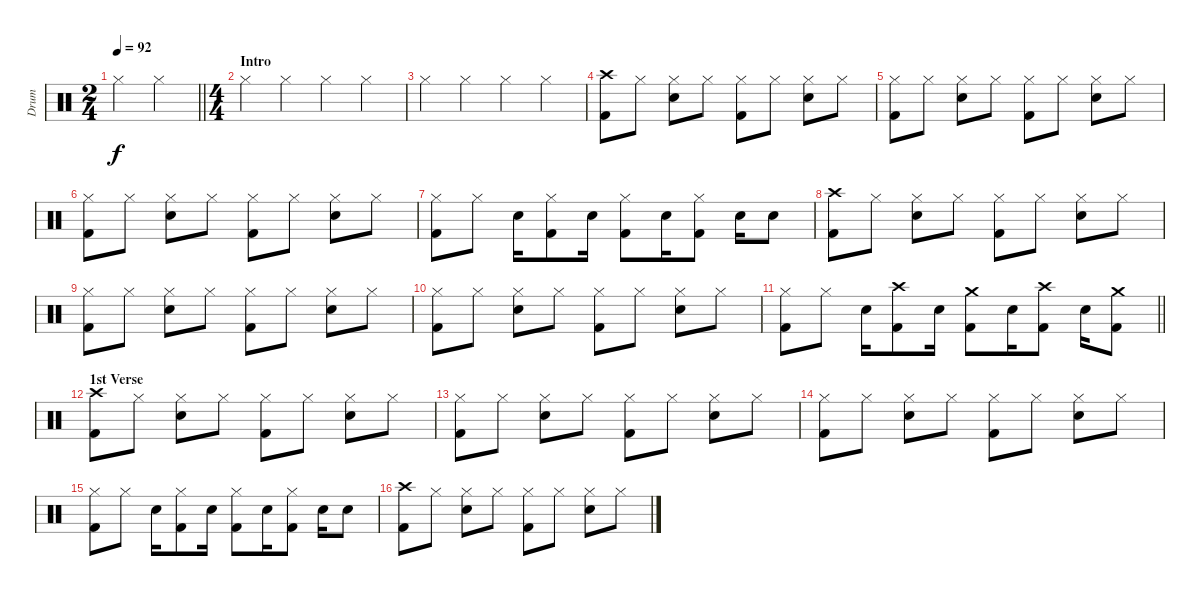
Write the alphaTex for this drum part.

\track ("Drum" "Drum") {instrument percussion}
\staff {score}
\articulation defaults
\ts (2 4)
\tempo 92
\clef neutral
\barLineRight lightlight
\ks c "Hi-Hat (closed)".4{dy f} "Hi-Hat (closed)".4
|
\ts (4 4)
\section ("" "Intro")
"Hi-Hat (closed)".4 "Hi-Hat (closed)".4 "Hi-Hat (closed)".4 "Hi-Hat (closed)".4 |
"Hi-Hat (closed)".4 "Hi-Hat (closed)".4 "Hi-Hat (closed)".4 "Hi-Hat (closed)".4 |
("Crash high (hit)" "Kick (hit) 2").8 "Hi-Hat (closed)".8 ("Hi-Hat (closed)" "Snare (hit) 2").8 "Hi-Hat (closed)".8 ("Hi-Hat (closed)" "Kick (hit) 2").8 "Hi-Hat (closed)".8 ("Hi-Hat (closed)" "Snare (hit) 2").8 "Hi-Hat (closed)".8 |
("Hi-Hat (closed)" "Kick (hit) 2").8 "Hi-Hat (closed)".8 ("Hi-Hat (closed)" "Snare (hit) 2").8 "Hi-Hat (closed)".8 ("Hi-Hat (closed)" "Kick (hit) 2").8 "Hi-Hat (closed)".8 ("Hi-Hat (closed)" "Snare (hit) 2").8 "Hi-Hat (closed)".8 |
("Hi-Hat (closed)" "Kick (hit) 2").8 "Hi-Hat (closed)".8 ("Hi-Hat (closed)" "Snare (hit) 2").8 "Hi-Hat (closed)".8 ("Hi-Hat (closed)" "Kick (hit) 2").8 "Hi-Hat (closed)".8 ("Hi-Hat (closed)" "Snare (hit) 2").8 "Hi-Hat (closed)".8 |
("Hi-Hat (closed)" "Kick (hit) 2").8 "Hi-Hat (closed)".8 "Snare (hit) 2".16 ("Hi-Hat (closed)" "Kick (hit) 2").8 "Snare (hit) 2".16 ("Hi-Hat (closed)" "Kick (hit) 2").8 "Snare (hit) 2".16 ("Hi-Hat (closed)" "Kick (hit) 2").8 "Snare (hit) 2".16 "Snare (hit) 2".8 |
("Crash high (hit)" "Kick (hit) 2").8 "Hi-Hat (closed)".8 ("Hi-Hat (closed)" "Snare (hit) 2").8 "Hi-Hat (closed)".8 ("Hi-Hat (closed)" "Kick (hit) 2").8 "Hi-Hat (closed)".8 ("Hi-Hat (closed)" "Snare (hit) 2").8 "Hi-Hat (closed)".8 |
("Hi-Hat (closed)" "Kick (hit) 2").8 "Hi-Hat (closed)".8 ("Hi-Hat (closed)" "Snare (hit) 2").8 "Hi-Hat (closed)".8 ("Hi-Hat (closed)" "Kick (hit) 2").8 "Hi-Hat (closed)".8 ("Hi-Hat (closed)" "Snare (hit) 2").8 "Hi-Hat (closed)".8 |
("Hi-Hat (closed)" "Kick (hit) 2").8 "Hi-Hat (closed)".8 ("Hi-Hat (closed)" "Snare (hit) 2").8 "Hi-Hat (closed)".8 ("Hi-Hat (closed)" "Kick (hit) 2").8 "Hi-Hat (closed)".8 ("Hi-Hat (closed)" "Snare (hit) 2").8 "Hi-Hat (closed)".8 |
\barLineRight lightlight
("Hi-Hat (closed)" "Kick (hit) 2").8 "Hi-Hat (closed)".8 "Snare (hit) 2".16 ("Crash high (hit)" "Kick (hit) 2").8 "Snare (hit) 2".16 ("Crash medium (hit)" "Kick (hit) 2").8 "Snare (hit) 2".16 ("Crash high (hit)" "Kick (hit) 2").8 "Snare (hit) 2".16 ("Crash medium (hit)" "Kick (hit) 2").8 |
\section ("" "1st Verse")
("Crash high (hit)" "Kick (hit) 2").8 "Hi-Hat (closed)".8 ("Hi-Hat (closed)" "Snare (hit) 2").8 "Hi-Hat (closed)".8 ("Hi-Hat (closed)" "Kick (hit) 2").8 "Hi-Hat (closed)".8 ("Hi-Hat (closed)" "Snare (hit) 2").8 "Hi-Hat (closed)".8 |
("Hi-Hat (closed)" "Kick (hit) 2").8 "Hi-Hat (closed)".8 ("Hi-Hat (closed)" "Snare (hit) 2").8 "Hi-Hat (closed)".8 ("Hi-Hat (closed)" "Kick (hit) 2").8 "Hi-Hat (closed)".8 ("Hi-Hat (closed)" "Snare (hit) 2").8 "Hi-Hat (closed)".8 |
("Hi-Hat (closed)" "Kick (hit) 2").8 "Hi-Hat (closed)".8 ("Hi-Hat (closed)" "Snare (hit) 2").8 "Hi-Hat (closed)".8 ("Hi-Hat (closed)" "Kick (hit) 2").8 "Hi-Hat (closed)".8 ("Hi-Hat (closed)" "Snare (hit) 2").8 "Hi-Hat (closed)".8 |
("Hi-Hat (closed)" "Kick (hit) 2").8 "Hi-Hat (closed)".8 "Snare (hit) 2".16 ("Hi-Hat (closed)" "Kick (hit) 2").8 "Snare (hit) 2".16 ("Hi-Hat (closed)" "Kick (hit) 2").8 "Snare (hit) 2".16 ("Hi-Hat (closed)" "Kick (hit) 2").8 "Snare (hit) 2".16 "Snare (hit) 2".8 |
("Crash high (hit)" "Kick (hit) 2").8 "Hi-Hat (closed)".8 ("Hi-Hat (closed)" "Snare (hit) 2").8 "Hi-Hat (closed)".8 ("Hi-Hat (closed)" "Kick (hit) 2").8 "Hi-Hat (closed)".8 ("Hi-Hat (closed)" "Snare (hit) 2").8 "Hi-Hat (closed)".8
